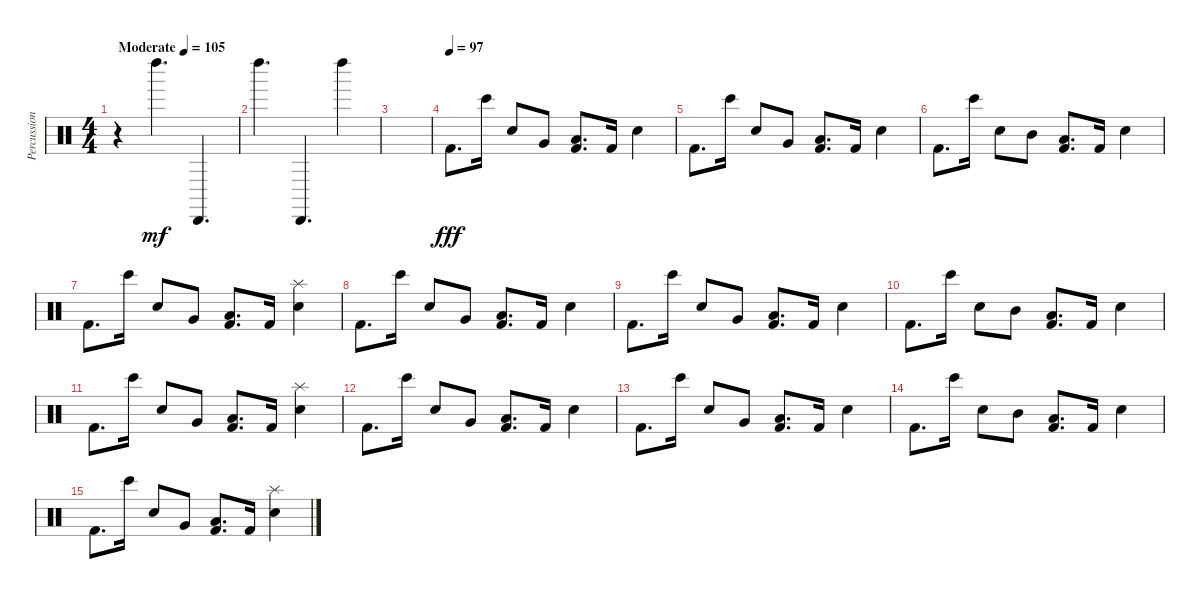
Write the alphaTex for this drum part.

\track ("Percussion" "Percussion") {instrument percussion}
\staff {score}
\articulation defaults
\ts (4 4)
\tempo (105 "Moderate")
\clef neutral
\ks c
r.4{dy mf} "Left Maraca (hit)".4{d} "Cabasa (hit)".4{d} |
"Left Maraca (hit)".4{d} "Cabasa (hit)".4{d} "Left Maraca (hit)".4 |
|
\tempo (97)
"Kick (hit) 2".8{d dy fff} "Bongo High (hit)".16 "Hand Clap (hit)".8 "Very Low Tom (hit)".8 ("Low Floor Tom (hit)" "Kick (hit) 2").8{d} "Kick (hit) 2".16 "Hand Clap (hit)".4 |
"Kick (hit) 2".8{d} "Bongo High (hit)".16 "Hand Clap (hit)".8 "Very Low Tom (hit)".8 ("Low Floor Tom (hit)" "Kick (hit) 2").8{d} "Kick (hit) 2".16 "Hand Clap (hit)".4 |
"Kick (hit) 2".8{d} "Bongo High (hit)".16 "Hand Clap (hit)".8 "Mid Tom (hit)".8 ("Low Floor Tom (hit)" "Kick (hit) 2").8{d} "Kick (hit) 2".16 "Hand Clap (hit)".4 |
"Kick (hit) 2".8{d} "Bongo High (hit)".16 "Hand Clap (hit)".8 "Very Low Tom (hit)".8 ("Low Floor Tom (hit)" "Kick (hit) 2").8{d} "Kick (hit) 2".16 ("Splash (hit)" "Hand Clap (hit)").4 |
"Kick (hit) 2".8{d} "Bongo High (hit)".16 "Hand Clap (hit)".8 "Very Low Tom (hit)".8 ("Low Floor Tom (hit)" "Kick (hit) 2").8{d} "Kick (hit) 2".16 "Hand Clap (hit)".4 |
"Kick (hit) 2".8{d} "Bongo High (hit)".16 "Hand Clap (hit)".8 "Very Low Tom (hit)".8 ("Low Floor Tom (hit)" "Kick (hit) 2").8{d} "Kick (hit) 2".16 "Hand Clap (hit)".4 |
"Kick (hit) 2".8{d} "Bongo High (hit)".16 "Hand Clap (hit)".8 "Mid Tom (hit)".8 ("Low Floor Tom (hit)" "Kick (hit) 2").8{d} "Kick (hit) 2".16 "Hand Clap (hit)".4 |
"Kick (hit) 2".8{d} "Bongo High (hit)".16 "Hand Clap (hit)".8 "Very Low Tom (hit)".8 ("Low Floor Tom (hit)" "Kick (hit) 2").8{d} "Kick (hit) 2".16 ("Splash (hit)" "Hand Clap (hit)").4 |
"Kick (hit) 2".8{d} "Bongo High (hit)".16 "Hand Clap (hit)".8 "Very Low Tom (hit)".8 ("Low Floor Tom (hit)" "Kick (hit) 2").8{d} "Kick (hit) 2".16 "Hand Clap (hit)".4 |
"Kick (hit) 2".8{d} "Bongo High (hit)".16 "Hand Clap (hit)".8 "Very Low Tom (hit)".8 ("Low Floor Tom (hit)" "Kick (hit) 2").8{d} "Kick (hit) 2".16 "Hand Clap (hit)".4 |
"Kick (hit) 2".8{d} "Bongo High (hit)".16 "Hand Clap (hit)".8 "Mid Tom (hit)".8 ("Low Floor Tom (hit)" "Kick (hit) 2").8{d} "Kick (hit) 2".16 "Hand Clap (hit)".4 |
"Kick (hit) 2".8{d} "Bongo High (hit)".16 "Hand Clap (hit)".8 "Very Low Tom (hit)".8 ("Low Floor Tom (hit)" "Kick (hit) 2").8{d} "Kick (hit) 2".16 ("Splash (hit)" "Hand Clap (hit)").4
